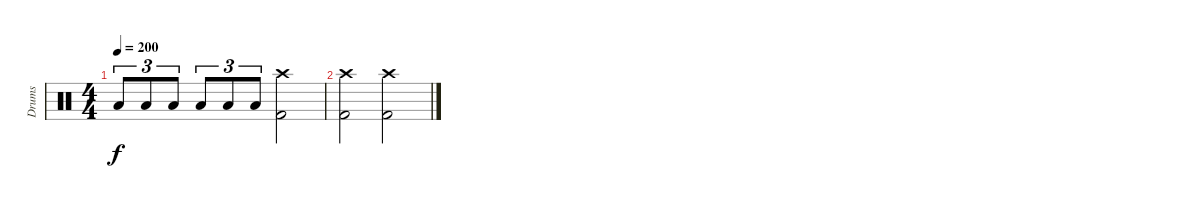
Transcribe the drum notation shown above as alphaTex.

\track ("Drums" "Drums") {instrument percussion}
\staff {score}
\articulation defaults
\ts (4 4)
\tempo 200
\clef neutral
\ks c "Low Tom (hit)".8{tu (3 2) dy f} "Low Tom (hit)".8{tu (3 2)} "Low Tom (hit)".8{tu (3 2)} "Low Tom (hit)".8{tu (3 2)} "Low Tom (hit)".8{tu (3 2)} "Low Tom (hit)".8{tu (3 2)}
("Crash high (hit)" "Kick (hit) 2").2 |
("Crash high (hit)" "Kick (hit) 2").2 ("Crash high (hit)" "Kick (hit) 2").2
